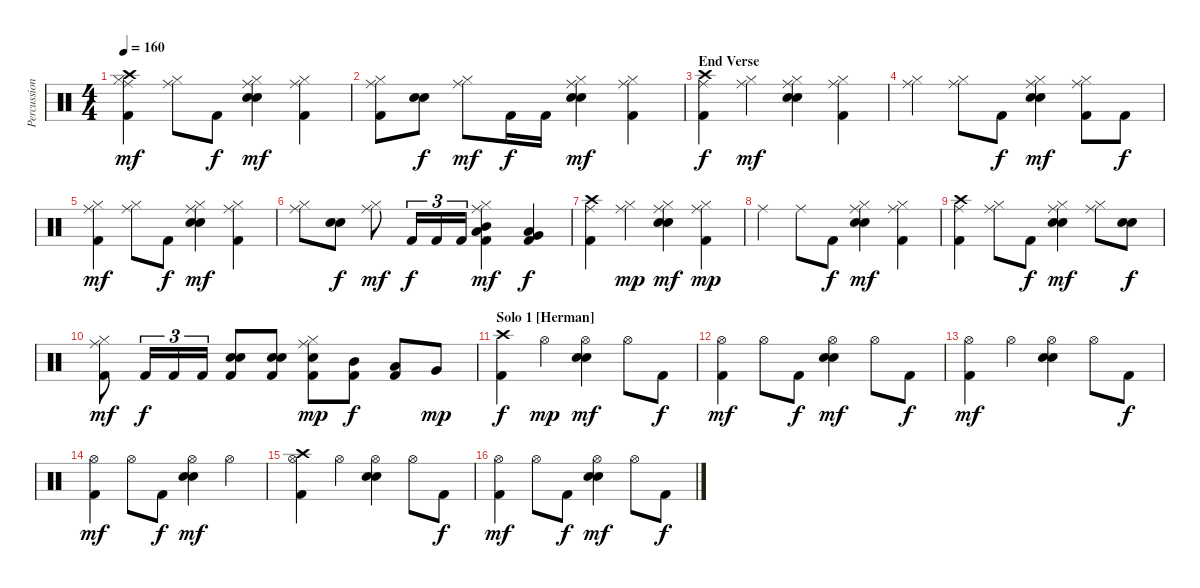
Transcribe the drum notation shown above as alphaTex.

\track ("Percussion" "Percussion") {instrument percussion}
\staff {score}
\articulation defaults
\ts (4 4)
\tempo 160
\clef neutral
\ks c
("Crash high (hit)" "Ride (middle)" "Hi-Hat (closed)" "Kick (hit) 2").4{dy mf} ("Ride (middle)" "Hi-Hat (closed)").8 "Kick (hit) 2".8{dy f} ("Ride (middle)" "Hi-Hat (closed)" "Snare (hit) 2" "Electric Snare (hit)").4{dy mf} ("Ride (middle)" "Hi-Hat (closed)" "Kick (hit) 2").4 |
("Ride (middle)" "Hi-Hat (closed)" "Kick (hit) 2").8 ("Snare (hit) 2" "Electric Snare (hit)").8{dy f} ("Ride (middle)" "Hi-Hat (closed)").8{dy mf} "Kick (hit) 2".16{dy f} "Kick (hit) 2".16 ("Ride (middle)" "Hi-Hat (closed)" "Snare (hit) 2" "Electric Snare (hit)").4{dy mf} ("Ride (middle)" "Hi-Hat (closed)" "Kick (hit) 2").4 |
\section ("" "End Verse")
("Crash high (hit)" "Ride (middle)" "Kick (hit) 2").4{dy f} ("Ride (middle)" "Hi-Hat (closed)").4{dy mf} ("Ride (middle)" "Hi-Hat (closed)" "Electric Snare (hit)" "Snare (hit) 2").4 ("Ride (middle)" "Hi-Hat (closed)" "Kick (hit) 2").4 |
("Ride (middle)" "Hi-Hat (closed)").4 ("Ride (middle)" "Hi-Hat (closed)").8 "Kick (hit) 2".8{dy f} ("Ride (middle)" "Hi-Hat (closed)" "Electric Snare (hit)" "Snare (hit) 2").4{dy mf} ("Ride (middle)" "Hi-Hat (closed)" "Kick (hit) 2").8 "Kick (hit) 2".8{dy f} |
("Ride (middle)" "Hi-Hat (closed)" "Kick (hit) 2").4{dy mf} ("Ride (middle)" "Hi-Hat (closed)").8 "Kick (hit) 2".8{dy f} ("Ride (middle)" "Hi-Hat (closed)" "Electric Snare (hit)" "Snare (hit) 2").4{dy mf} ("Ride (middle)" "Hi-Hat (closed)" "Kick (hit) 2").4 |
("Ride (middle)" "Hi-Hat (closed)").8 ("Electric Snare (hit)" "Snare (hit) 2").8{dy f} ("Ride (middle)" "Hi-Hat (closed)").8{dy mf} "Kick (hit) 2".16{tu (3 2) dy f} "Kick (hit) 2".16{tu (3 2)} "Kick (hit) 2".16{tu (3 2)} ("Ride (middle)" "Hi-Hat (closed)" "Mid Tom (hit)" "Low Tom (hit)" "Kick (hit) 2").4{dy mf} ("Low Tom (hit)" "Very Low Tom (hit)" "Kick (hit) 2").4{dy f} |
("Crash high (hit)" "Ride (middle)" "Kick (hit) 2").4 ("Ride (middle)" "Hi-Hat (closed)").4{dy mp} ("Ride (middle)" "Hi-Hat (closed)" "Electric Snare (hit)" "Snare (hit) 2").4{dy mf} ("Ride (middle)" "Hi-Hat (closed)" "Kick (hit) 2").4{dy mp} |
"Ride (middle)".4 "Ride (middle)".8 "Kick (hit) 2".8{dy f} ("Ride (middle)" "Hi-Hat (closed)" "Electric Snare (hit)" "Snare (hit) 2").4{dy mf} ("Ride (middle)" "Hi-Hat (closed)" "Kick (hit) 2").4 |
("Crash high (hit)" "Ride (middle)" "Kick (hit) 2").4 ("Ride (middle)" "Hi-Hat (closed)").8 "Kick (hit) 2".8{dy f} ("Ride (middle)" "Hi-Hat (closed)" "Electric Snare (hit)" "Snare (hit) 2").4{dy mf} ("Ride (middle)" "Hi-Hat (closed)").8 ("Electric Snare (hit)" "Snare (hit) 2").8{dy f} |
("Ride (middle)" "Hi-Hat (closed)" "Kick (hit) 2").8{dy mf} "Kick (hit) 2".16{tu (3 2) dy f} "Kick (hit) 2".16{tu (3 2)} "Kick (hit) 2".16{tu (3 2)} ("Electric Snare (hit)" "Snare (hit) 2" "Kick (hit) 2").8 ("Electric Snare (hit)" "Snare (hit) 2" "Kick (hit) 2").8 ("Ride (middle)" "Hi-Hat (closed)" "Electric Snare (hit)" "Kick (hit) 2").8{dy mp} ("Mid Tom (hit)" "Kick (hit) 2").8{dy f} ("Low Tom (hit)" "Kick (hit) 2").8 "Very Low Tom (hit)".8{dy mp} |
\section ("" "Solo 1 [Herman]")
("Crash high (hit)" "Kick (hit) 2").4{dy f} "Hi-Hat (open)".4{dy mp} ("Hi-Hat (open)" "Electric Snare (hit)" "Snare (hit) 2").4{dy mf} "Hi-Hat (open)".8 "Kick (hit) 2".8{dy f} |
("Hi-Hat (open)" "Kick (hit) 2").4{dy mf} "Hi-Hat (open)".8 "Kick (hit) 2".8{dy f} ("Hi-Hat (open)" "Electric Snare (hit)" "Snare (hit) 2").4{dy mf} "Hi-Hat (open)".8 "Kick (hit) 2".8{dy f} |
("Hi-Hat (open)" "Kick (hit) 2").4{dy mf} "Hi-Hat (open)".4 ("Hi-Hat (open)" "Electric Snare (hit)" "Snare (hit) 2").4 "Hi-Hat (open)".8 "Kick (hit) 2".8{dy f} |
("Hi-Hat (open)" "Kick (hit) 2").4{dy mf} "Hi-Hat (open)".8 "Kick (hit) 2".8{dy f} ("Hi-Hat (open)" "Electric Snare (hit)" "Snare (hit) 2").4{dy mf} "Hi-Hat (open)".4 |
("Crash high (hit)" "Hi-Hat (open)" "Kick (hit) 2").4 "Hi-Hat (open)".4 ("Hi-Hat (open)" "Electric Snare (hit)" "Snare (hit) 2").4 "Hi-Hat (open)".8 "Kick (hit) 2".8{dy f} |
("Hi-Hat (open)" "Kick (hit) 2").4{dy mf} "Hi-Hat (open)".8 "Kick (hit) 2".8{dy f} ("Hi-Hat (open)" "Electric Snare (hit)" "Snare (hit) 2").4{dy mf} "Hi-Hat (open)".8 "Kick (hit) 2".8{dy f}
